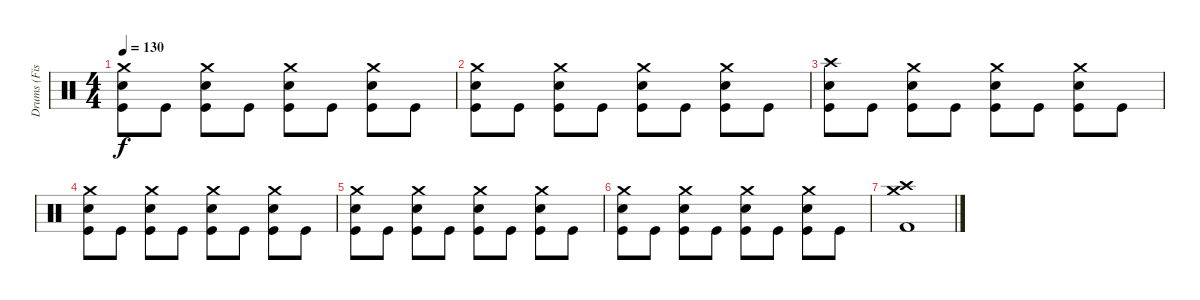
\track ("Drums (Fish)" "Drums (Fis") {instrument percussion}
\staff {score}
\articulation defaults
\ts (4 4)
\tempo 130
\clef neutral
\ks c
("Crash medium (hit)" "Electric Snare (hit)" "Kick (hit)").8{dy f} "Kick (hit)".8 ("Crash medium (hit)" "Electric Snare (hit)" "Kick (hit)").8 "Kick (hit)".8 ("Crash medium (hit)" "Electric Snare (hit)" "Kick (hit)").8 "Kick (hit)".8 ("Crash medium (hit)" "Electric Snare (hit)" "Kick (hit)").8 "Kick (hit)".8 |
("Crash medium (hit)" "Electric Snare (hit)" "Kick (hit)").8 "Kick (hit)".8 ("Crash medium (hit)" "Electric Snare (hit)" "Kick (hit)").8 "Kick (hit)".8 ("Crash medium (hit)" "Electric Snare (hit)" "Kick (hit)").8 "Kick (hit)".8 ("Crash medium (hit)" "Electric Snare (hit)" "Kick (hit)").8 "Kick (hit)".8 |
("Crash high (hit)" "Electric Snare (hit)" "Kick (hit)").8 "Kick (hit)".8 ("Crash medium (hit)" "Electric Snare (hit)" "Kick (hit)").8 "Kick (hit)".8 ("Crash medium (hit)" "Electric Snare (hit)" "Kick (hit)").8 "Kick (hit)".8 ("Crash medium (hit)" "Electric Snare (hit)" "Kick (hit)").8 "Kick (hit)".8 |
("Crash medium (hit)" "Electric Snare (hit)" "Kick (hit)").8 "Kick (hit)".8 ("Crash medium (hit)" "Electric Snare (hit)" "Kick (hit)").8 "Kick (hit)".8 ("Crash medium (hit)" "Electric Snare (hit)" "Kick (hit)").8 "Kick (hit)".8 ("Crash medium (hit)" "Electric Snare (hit)" "Kick (hit)").8 "Kick (hit)".8 |
("Crash medium (hit)" "Electric Snare (hit)" "Kick (hit)").8 "Kick (hit)".8 ("Crash medium (hit)" "Electric Snare (hit)" "Kick (hit)").8 "Kick (hit)".8 ("Crash medium (hit)" "Electric Snare (hit)" "Kick (hit)").8 "Kick (hit)".8 ("Crash medium (hit)" "Electric Snare (hit)" "Kick (hit)").8 "Kick (hit)".8 |
("Crash medium (hit)" "Electric Snare (hit)" "Kick (hit)").8 "Kick (hit)".8 ("Crash medium (hit)" "Electric Snare (hit)" "Kick (hit)").8 "Kick (hit)".8 ("Crash medium (hit)" "Electric Snare (hit)" "Kick (hit)").8 "Kick (hit)".8 ("Crash medium (hit)" "Electric Snare (hit)" "Kick (hit)").8 "Kick (hit)".8 |
("Crash high (hit)" "Crash medium (hit)" "Kick (hit) 2").1
